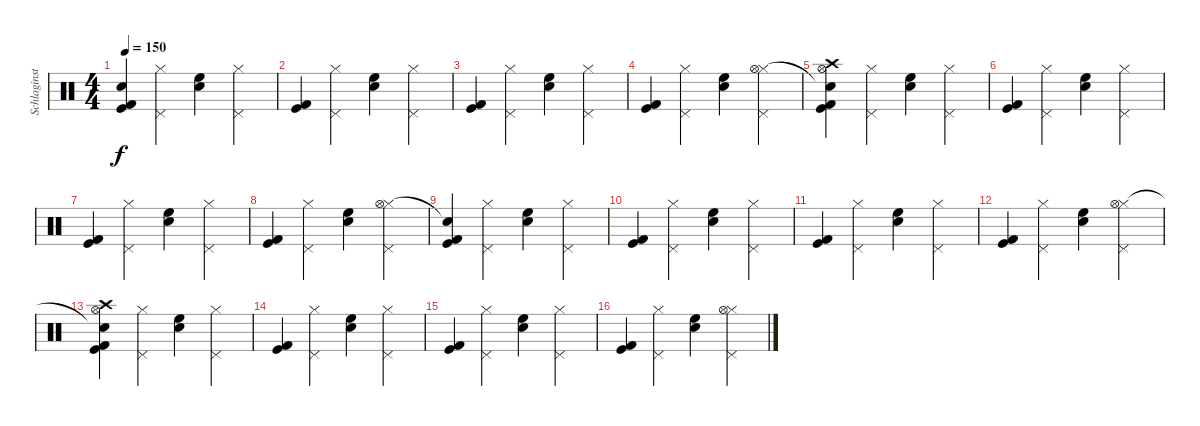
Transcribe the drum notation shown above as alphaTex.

\track ("Schlaginstrumente - Auswahl" "Schlaginst") {instrument percussion}
\staff {score}
\articulation defaults
\ts (4 4)
\tempo 150
\clef neutral
\ks c
("Kick (hit) 2" "Kick (hit)" "Snare (hit)"{t}).4{dy f} ("Pedal Hi-Hat (hit)" "Hi-Hat (closed)").4 ("High Floor Tom (hit)" "Snare (hit) 2").4 ("Pedal Hi-Hat (hit)" "Hi-Hat (closed)").4 |
("Kick (hit) 2" "Kick (hit)").4 ("Pedal Hi-Hat (hit)" "Hi-Hat (closed)").4 ("High Floor Tom (hit)" "Snare (hit) 2").4 ("Pedal Hi-Hat (hit)" "Hi-Hat (closed)").4 |
("Kick (hit) 2" "Kick (hit)").4 ("Pedal Hi-Hat (hit)" "Hi-Hat (closed)").4 ("High Floor Tom (hit)" "Snare (hit) 2").4 ("Pedal Hi-Hat (hit)" "Hi-Hat (closed)").4 |
("Kick (hit) 2" "Kick (hit)").4 ("Pedal Hi-Hat (hit)" "Hi-Hat (closed)").4 ("High Floor Tom (hit)" "Snare (hit) 2").4 ("Pedal Hi-Hat (hit)" "Hi-Hat (closed)" "Hi-Hat (open)").4 |
("Kick (hit) 2" "Kick (hit)" "Snare (hit)"{t} "Hi-Hat (open)" "Crash high (hit)").4 ("Pedal Hi-Hat (hit)" "Hi-Hat (closed)").4 ("High Floor Tom (hit)" "Snare (hit) 2").4 ("Pedal Hi-Hat (hit)" "Hi-Hat (closed)").4 |
("Kick (hit) 2" "Kick (hit)").4 ("Pedal Hi-Hat (hit)" "Hi-Hat (closed)").4 ("High Floor Tom (hit)" "Snare (hit) 2").4 ("Pedal Hi-Hat (hit)" "Hi-Hat (closed)").4 |
("Kick (hit) 2" "Kick (hit)").4 ("Pedal Hi-Hat (hit)" "Hi-Hat (closed)").4 ("High Floor Tom (hit)" "Snare (hit) 2").4 ("Pedal Hi-Hat (hit)" "Hi-Hat (closed)").4 |
("Kick (hit) 2" "Kick (hit)").4 ("Pedal Hi-Hat (hit)" "Hi-Hat (closed)").4 ("High Floor Tom (hit)" "Snare (hit) 2").4 ("Pedal Hi-Hat (hit)" "Hi-Hat (closed)" "Hi-Hat (open)").4 |
("Kick (hit) 2" "Kick (hit)" "Snare (hit)"{t}).4 ("Pedal Hi-Hat (hit)" "Hi-Hat (closed)").4 ("High Floor Tom (hit)" "Snare (hit) 2").4 ("Pedal Hi-Hat (hit)" "Hi-Hat (closed)").4 |
("Kick (hit) 2" "Kick (hit)").4 ("Pedal Hi-Hat (hit)" "Hi-Hat (closed)").4 ("High Floor Tom (hit)" "Snare (hit) 2").4 ("Pedal Hi-Hat (hit)" "Hi-Hat (closed)").4 |
("Kick (hit) 2" "Kick (hit)").4 ("Pedal Hi-Hat (hit)" "Hi-Hat (closed)").4 ("High Floor Tom (hit)" "Snare (hit) 2").4 ("Pedal Hi-Hat (hit)" "Hi-Hat (closed)").4 |
("Kick (hit) 2" "Kick (hit)").4 ("Pedal Hi-Hat (hit)" "Hi-Hat (closed)").4 ("High Floor Tom (hit)" "Snare (hit) 2").4 ("Pedal Hi-Hat (hit)" "Hi-Hat (closed)" "Hi-Hat (open)").4 |
("Kick (hit) 2" "Kick (hit)" "Snare (hit)"{t} "Hi-Hat (open)" "Crash high (hit)").4 ("Pedal Hi-Hat (hit)" "Hi-Hat (closed)").4 ("High Floor Tom (hit)" "Snare (hit) 2").4 ("Pedal Hi-Hat (hit)" "Hi-Hat (closed)").4 |
("Kick (hit) 2" "Kick (hit)").4 ("Pedal Hi-Hat (hit)" "Hi-Hat (closed)").4 ("High Floor Tom (hit)" "Snare (hit) 2").4 ("Pedal Hi-Hat (hit)" "Hi-Hat (closed)").4 |
("Kick (hit) 2" "Kick (hit)").4 ("Pedal Hi-Hat (hit)" "Hi-Hat (closed)").4 ("High Floor Tom (hit)" "Snare (hit) 2").4 ("Pedal Hi-Hat (hit)" "Hi-Hat (closed)").4 |
("Kick (hit) 2" "Kick (hit)").4 ("Pedal Hi-Hat (hit)" "Hi-Hat (closed)").4 ("High Floor Tom (hit)" "Snare (hit) 2").4 ("Pedal Hi-Hat (hit)" "Hi-Hat (closed)" "Hi-Hat (open)").4
